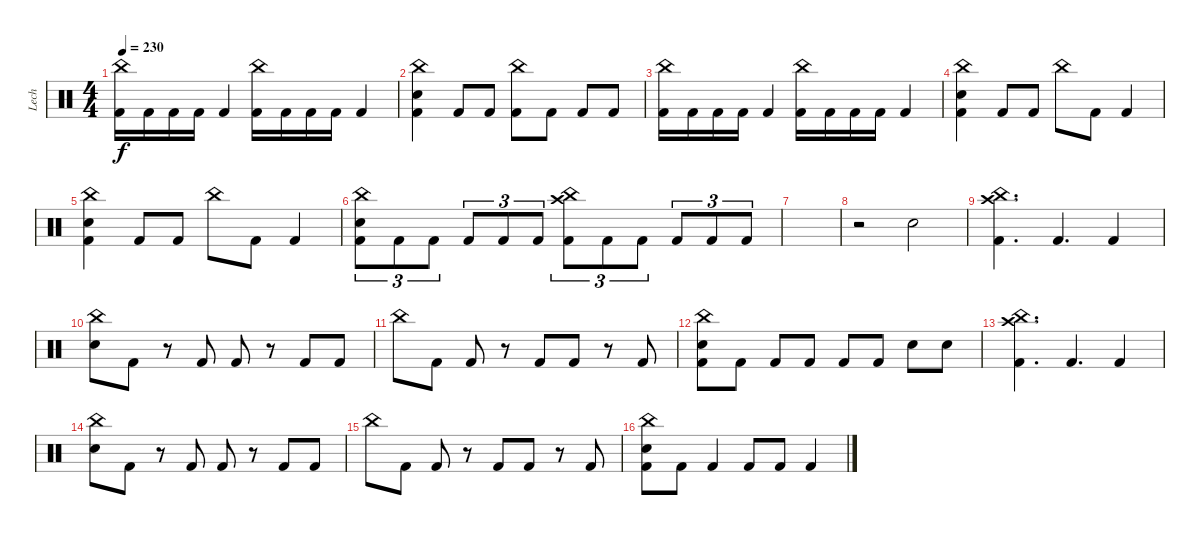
\track ("Lech" "Lech") {instrument percussion}
\staff {score}
\articulation defaults
\ts (4 4)
\tempo 230
\clef neutral
\ks c
("China (hit)" "Kick (hit) 2").16{dy f} "Kick (hit) 2".16 "Kick (hit) 2".16 "Kick (hit) 2".16 "Kick (hit) 2".4 ("China (hit)" "Kick (hit) 2").16 "Kick (hit) 2".16 "Kick (hit) 2".16 "Kick (hit) 2".16 "Kick (hit) 2".4 |
("China (hit)" "Electric Snare (hit)" "Kick (hit) 2").4 "Kick (hit) 2".8 "Kick (hit) 2".8 ("China (hit)" "Kick (hit) 2").8 "Kick (hit) 2".8 "Kick (hit) 2".8 "Kick (hit) 2".8 |
("China (hit)" "Kick (hit) 2").16 "Kick (hit) 2".16 "Kick (hit) 2".16 "Kick (hit) 2".16 "Kick (hit) 2".4 ("China (hit)" "Kick (hit) 2").16 "Kick (hit) 2".16 "Kick (hit) 2".16 "Kick (hit) 2".16 "Kick (hit) 2".4 |
("China (hit)" "Electric Snare (hit)" "Kick (hit) 2").4 "Kick (hit) 2".8 "Kick (hit) 2".8 "China (hit)".8 "Kick (hit) 2".8 "Kick (hit) 2".4 |
("China (hit)" "Electric Snare (hit)" "Kick (hit) 2").4 "Kick (hit) 2".8 "Kick (hit) 2".8 "China (hit)".8 "Kick (hit) 2".8 "Kick (hit) 2".4 |
("China (hit)" "Electric Snare (hit)" "Kick (hit) 2").8{tu (3 2)} "Kick (hit) 2".8{tu (3 2)} "Kick (hit) 2".8{tu (3 2)} "Kick (hit) 2".8{tu (3 2)} "Kick (hit) 2".8{tu (3 2)} "Kick (hit) 2".8{tu (3 2)} ("China (hit)" "Crash high (hit)" "Kick (hit) 2").8{tu (3 2)} "Kick (hit) 2".8{tu (3 2)} "Kick (hit) 2".8{tu (3 2)} "Kick (hit) 2".8{tu (3 2)} "Kick (hit) 2".8{tu (3 2)} "Kick (hit) 2".8{tu (3 2)} |
|
r.2 "Electric Snare (hit)".2 |
("China (hit)" "Crash high (hit)" "Kick (hit) 2").4{d} "Kick (hit) 2".4{d} "Kick (hit) 2".4 |
("China (hit)" "Electric Snare (hit)").8 "Kick (hit) 2".8 r.8 "Kick (hit) 2".8 "Kick (hit) 2".8 r.8 "Kick (hit) 2".8 "Kick (hit) 2".8 |
"China (hit)".8 "Kick (hit) 2".8 "Kick (hit) 2".8 r.8 "Kick (hit) 2".8 "Kick (hit) 2".8 r.8 "Kick (hit) 2".8 |
("China (hit)" "Electric Snare (hit)" "Kick (hit) 2").8 "Kick (hit) 2".8 "Kick (hit) 2".8 "Kick (hit) 2".8 "Kick (hit) 2".8 "Kick (hit) 2".8 "Electric Snare (hit)".8 "Electric Snare (hit)".8 |
("China (hit)" "Crash high (hit)" "Kick (hit) 2").4{d} "Kick (hit) 2".4{d} "Kick (hit) 2".4 |
("China (hit)" "Electric Snare (hit)").8 "Kick (hit) 2".8 r.8 "Kick (hit) 2".8 "Kick (hit) 2".8 r.8 "Kick (hit) 2".8 "Kick (hit) 2".8 |
"China (hit)".8 "Kick (hit) 2".8 "Kick (hit) 2".8 r.8 "Kick (hit) 2".8 "Kick (hit) 2".8 r.8 "Kick (hit) 2".8 |
("China (hit)" "Electric Snare (hit)" "Kick (hit) 2").8 "Kick (hit) 2".8 "Kick (hit) 2".4 "Kick (hit) 2".8 "Kick (hit) 2".8 "Kick (hit) 2".4
